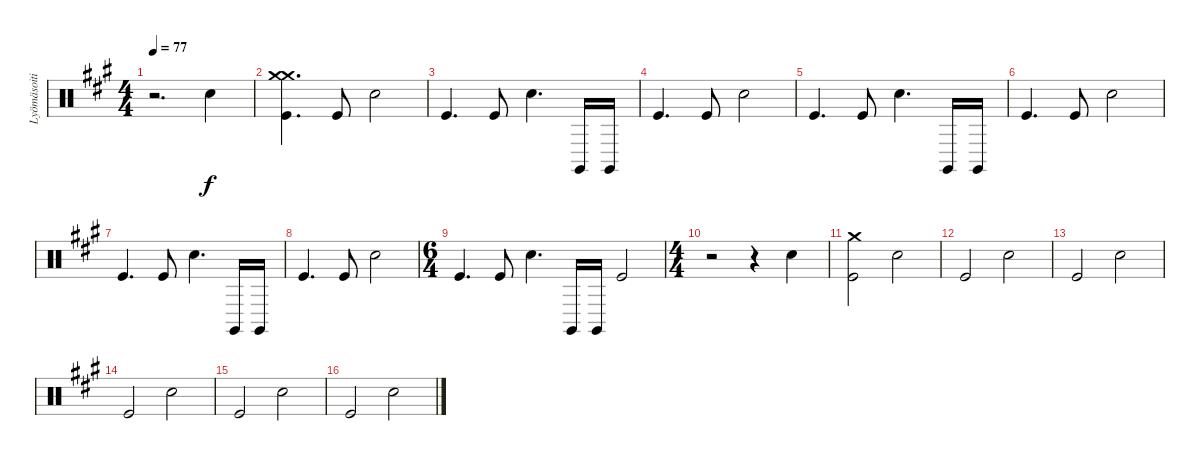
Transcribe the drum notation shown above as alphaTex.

\track ("Lyömäsoitin" "Lyömäsoiti") {instrument percussion}
\staff {score}
\articulation defaults
\ts (4 4)
\tempo 77
\clef neutral
\ks f#minor
r.2{d dy f} "Snare (hit) 2".4 |
("Kick (hit)" "Crash medium (hit)" "Crash medium (hit)").4{d} "Kick (hit)".8 "Snare (hit) 2".2 |
"Kick (hit)".4{d} "Kick (hit)".8 "Snare (hit) 2".4{d} "Claves (hit)".16 "Claves (hit)".16 |
"Kick (hit)".4{d} "Kick (hit)".8 "Snare (hit) 2".2 |
"Kick (hit)".4{d} "Kick (hit)".8 "Snare (hit) 2".4{d} "Claves (hit)".16 "Claves (hit)".16 |
"Kick (hit)".4{d} "Kick (hit)".8 "Snare (hit) 2".2 |
"Kick (hit)".4{d} "Kick (hit)".8 "Snare (hit) 2".4{d} "Claves (hit)".16 "Claves (hit)".16 |
"Kick (hit)".4{d} "Kick (hit)".8 "Snare (hit) 2".2 |
\ts (6 4)
"Kick (hit)".4{d} "Kick (hit)".8 "Snare (hit) 2".4{d} "Claves (hit)".16 "Claves (hit)".16 "Kick (hit)".2 |
\ts (4 4)
r.2 r.4 "Snare (hit) 2".4 |
("Crash medium (hit)" "Kick (hit)").2 "Snare (hit) 2".2 |
"Kick (hit)".2 "Snare (hit) 2".2 |
"Kick (hit)".2 "Snare (hit) 2".2 |
"Kick (hit)".2 "Snare (hit) 2".2 |
"Kick (hit)".2 "Snare (hit) 2".2 |
"Kick (hit)".2 "Snare (hit) 2".2
